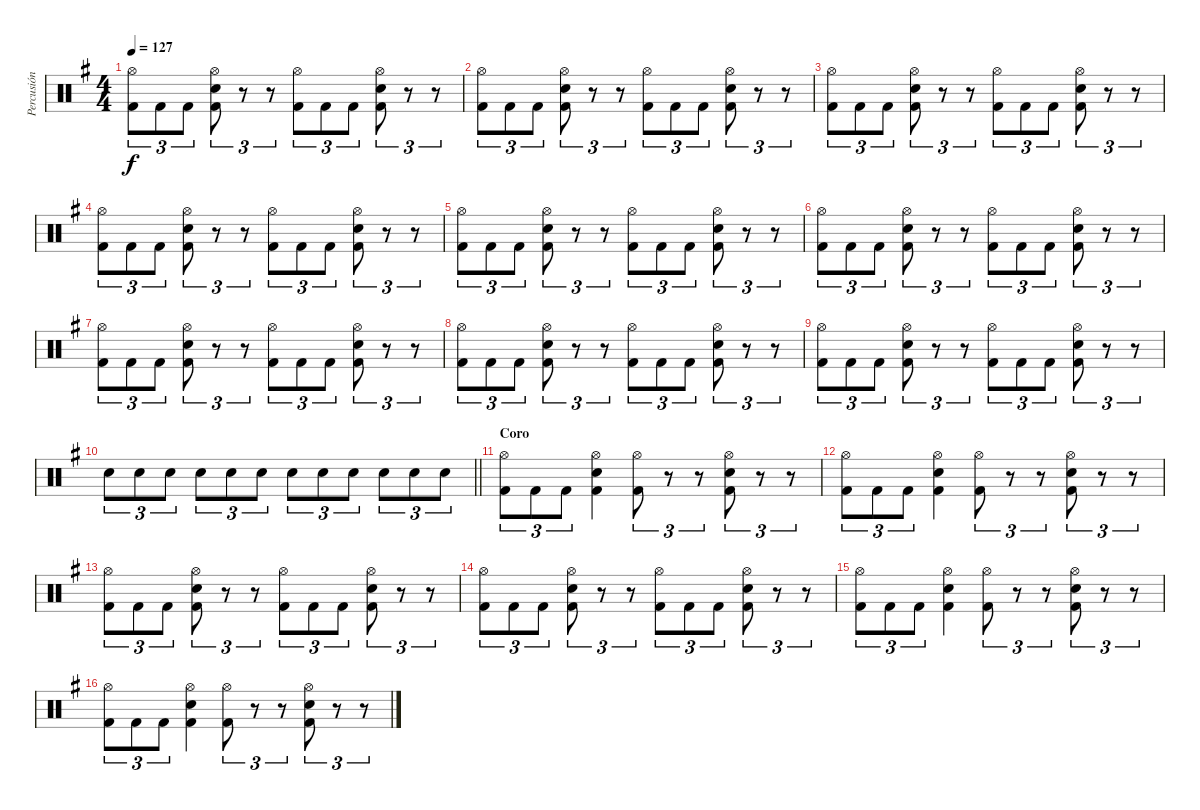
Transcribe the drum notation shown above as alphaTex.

\track ("Percusión" "Percusión") {instrument percussion}
\staff {score}
\articulation defaults
\ts (4 4)
\tempo 127
\clef neutral
\ks eminor
("Hi-Hat (open)" "Kick (hit) 2").8{tu (3 2) dy f} "Kick (hit) 2".8{tu (3 2)} "Kick (hit) 2".8{tu (3 2)} ("Hi-Hat (open)" "Kick (hit) 2" "Electric Snare (hit)").8{tu (3 2)} r.8{tu (3 2)} r.8{tu (3 2)} ("Hi-Hat (open)" "Kick (hit) 2").8{tu (3 2)} "Kick (hit) 2".8{tu (3 2)} "Kick (hit) 2".8{tu (3 2)} ("Hi-Hat (open)" "Kick (hit) 2" "Electric Snare (hit)").8{tu (3 2)} r.8{tu (3 2)} r.8{tu (3 2)} |
("Hi-Hat (open)" "Kick (hit) 2").8{tu (3 2)} "Kick (hit) 2".8{tu (3 2)} "Kick (hit) 2".8{tu (3 2)} ("Hi-Hat (open)" "Kick (hit) 2" "Electric Snare (hit)").8{tu (3 2)} r.8{tu (3 2)} r.8{tu (3 2)} ("Hi-Hat (open)" "Kick (hit) 2").8{tu (3 2)} "Kick (hit) 2".8{tu (3 2)} "Kick (hit) 2".8{tu (3 2)} ("Hi-Hat (open)" "Kick (hit) 2" "Electric Snare (hit)").8{tu (3 2)} r.8{tu (3 2)} r.8{tu (3 2)} |
("Hi-Hat (open)" "Kick (hit) 2").8{tu (3 2)} "Kick (hit) 2".8{tu (3 2)} "Kick (hit) 2".8{tu (3 2)} ("Hi-Hat (open)" "Kick (hit) 2" "Electric Snare (hit)").8{tu (3 2)} r.8{tu (3 2)} r.8{tu (3 2)} ("Hi-Hat (open)" "Kick (hit) 2").8{tu (3 2)} "Kick (hit) 2".8{tu (3 2)} "Kick (hit) 2".8{tu (3 2)} ("Hi-Hat (open)" "Kick (hit) 2" "Electric Snare (hit)").8{tu (3 2)} r.8{tu (3 2)} r.8{tu (3 2)} |
("Hi-Hat (open)" "Kick (hit) 2").8{tu (3 2)} "Kick (hit) 2".8{tu (3 2)} "Kick (hit) 2".8{tu (3 2)} ("Hi-Hat (open)" "Kick (hit) 2" "Electric Snare (hit)").8{tu (3 2)} r.8{tu (3 2)} r.8{tu (3 2)} ("Hi-Hat (open)" "Kick (hit) 2").8{tu (3 2)} "Kick (hit) 2".8{tu (3 2)} "Kick (hit) 2".8{tu (3 2)} ("Hi-Hat (open)" "Kick (hit) 2" "Electric Snare (hit)").8{tu (3 2)} r.8{tu (3 2)} r.8{tu (3 2)} |
("Hi-Hat (open)" "Kick (hit) 2").8{tu (3 2)} "Kick (hit) 2".8{tu (3 2)} "Kick (hit) 2".8{tu (3 2)} ("Hi-Hat (open)" "Kick (hit) 2" "Electric Snare (hit)").8{tu (3 2)} r.8{tu (3 2)} r.8{tu (3 2)} ("Hi-Hat (open)" "Kick (hit) 2").8{tu (3 2)} "Kick (hit) 2".8{tu (3 2)} "Kick (hit) 2".8{tu (3 2)} ("Hi-Hat (open)" "Kick (hit) 2" "Electric Snare (hit)").8{tu (3 2)} r.8{tu (3 2)} r.8{tu (3 2)} |
("Hi-Hat (open)" "Kick (hit) 2").8{tu (3 2)} "Kick (hit) 2".8{tu (3 2)} "Kick (hit) 2".8{tu (3 2)} ("Hi-Hat (open)" "Kick (hit) 2" "Electric Snare (hit)").8{tu (3 2)} r.8{tu (3 2)} r.8{tu (3 2)} ("Hi-Hat (open)" "Kick (hit) 2").8{tu (3 2)} "Kick (hit) 2".8{tu (3 2)} "Kick (hit) 2".8{tu (3 2)} ("Hi-Hat (open)" "Kick (hit) 2" "Electric Snare (hit)").8{tu (3 2)} r.8{tu (3 2)} r.8{tu (3 2)} |
("Hi-Hat (open)" "Kick (hit) 2").8{tu (3 2)} "Kick (hit) 2".8{tu (3 2)} "Kick (hit) 2".8{tu (3 2)} ("Hi-Hat (open)" "Kick (hit) 2" "Electric Snare (hit)").8{tu (3 2)} r.8{tu (3 2)} r.8{tu (3 2)} ("Hi-Hat (open)" "Kick (hit) 2").8{tu (3 2)} "Kick (hit) 2".8{tu (3 2)} "Kick (hit) 2".8{tu (3 2)} ("Hi-Hat (open)" "Kick (hit) 2" "Electric Snare (hit)").8{tu (3 2)} r.8{tu (3 2)} r.8{tu (3 2)} |
("Hi-Hat (open)" "Kick (hit) 2").8{tu (3 2)} "Kick (hit) 2".8{tu (3 2)} "Kick (hit) 2".8{tu (3 2)} ("Hi-Hat (open)" "Kick (hit) 2" "Electric Snare (hit)").8{tu (3 2)} r.8{tu (3 2)} r.8{tu (3 2)} ("Hi-Hat (open)" "Kick (hit) 2").8{tu (3 2)} "Kick (hit) 2".8{tu (3 2)} "Kick (hit) 2".8{tu (3 2)} ("Hi-Hat (open)" "Kick (hit) 2" "Electric Snare (hit)").8{tu (3 2)} r.8{tu (3 2)} r.8{tu (3 2)} |
("Hi-Hat (open)" "Kick (hit) 2").8{tu (3 2)} "Kick (hit) 2".8{tu (3 2)} "Kick (hit) 2".8{tu (3 2)} ("Hi-Hat (open)" "Kick (hit) 2" "Electric Snare (hit)").8{tu (3 2)} r.8{tu (3 2)} r.8{tu (3 2)} ("Hi-Hat (open)" "Kick (hit) 2").8{tu (3 2)} "Kick (hit) 2".8{tu (3 2)} "Kick (hit) 2".8{tu (3 2)} ("Hi-Hat (open)" "Kick (hit) 2" "Electric Snare (hit)").8{tu (3 2)} r.8{tu (3 2)} r.8{tu (3 2)} |
\barLineRight lightlight "Electric Snare (hit)".8{tu (3 2)} "Electric Snare (hit)".8{tu (3 2)} "Electric Snare (hit)".8{tu (3 2)} "Electric Snare (hit)".8{tu (3 2)} "Electric Snare (hit)".8{tu (3 2)} "Electric Snare (hit)".8{tu (3 2)} "Electric Snare (hit)".8{tu (3 2)} "Electric Snare (hit)".8{tu (3 2)} "Electric Snare (hit)".8{tu (3 2)} "Electric Snare (hit)".8{tu (3 2)} "Electric Snare (hit)".8{tu (3 2)} "Electric Snare (hit)".8{tu (3 2)}
|
\section ("" "Coro")
("Kick (hit) 2" "Hi-Hat (open)").8{tu (3 2)} "Kick (hit) 2".8{tu (3 2)} "Kick (hit) 2".8{tu (3 2)} ("Kick (hit) 2" "Hi-Hat (open)" "Electric Snare (hit)").4 ("Hi-Hat (open)" "Kick (hit) 2").8{tu (3 2)} r.8{tu (3 2)} r.8{tu (3 2)} ("Hi-Hat (open)" "Kick (hit) 2" "Electric Snare (hit)").8{tu (3 2)} r.8{tu (3 2)} r.8{tu (3 2)} |
("Kick (hit) 2" "Hi-Hat (open)").8{tu (3 2)} "Kick (hit) 2".8{tu (3 2)} "Kick (hit) 2".8{tu (3 2)} ("Kick (hit) 2" "Hi-Hat (open)" "Electric Snare (hit)").4 ("Hi-Hat (open)" "Kick (hit) 2").8{tu (3 2)} r.8{tu (3 2)} r.8{tu (3 2)} ("Hi-Hat (open)" "Kick (hit) 2" "Electric Snare (hit)").8{tu (3 2)} r.8{tu (3 2)} r.8{tu (3 2)} |
("Hi-Hat (open)" "Kick (hit) 2").8{tu (3 2)} "Kick (hit) 2".8{tu (3 2)} "Kick (hit) 2".8{tu (3 2)} ("Hi-Hat (open)" "Kick (hit) 2" "Electric Snare (hit)").8{tu (3 2)} r.8{tu (3 2)} r.8{tu (3 2)} ("Hi-Hat (open)" "Kick (hit) 2").8{tu (3 2)} "Kick (hit) 2".8{tu (3 2)} "Kick (hit) 2".8{tu (3 2)} ("Hi-Hat (open)" "Kick (hit) 2" "Electric Snare (hit)").8{tu (3 2)} r.8{tu (3 2)} r.8{tu (3 2)} |
("Hi-Hat (open)" "Kick (hit) 2").8{tu (3 2)} "Kick (hit) 2".8{tu (3 2)} "Kick (hit) 2".8{tu (3 2)} ("Hi-Hat (open)" "Kick (hit) 2" "Electric Snare (hit)").8{tu (3 2)} r.8{tu (3 2)} r.8{tu (3 2)} ("Hi-Hat (open)" "Kick (hit) 2").8{tu (3 2)} "Kick (hit) 2".8{tu (3 2)} "Kick (hit) 2".8{tu (3 2)} ("Hi-Hat (open)" "Kick (hit) 2" "Electric Snare (hit)").8{tu (3 2)} r.8{tu (3 2)} r.8{tu (3 2)} |
("Kick (hit) 2" "Hi-Hat (open)").8{tu (3 2)} "Kick (hit) 2".8{tu (3 2)} "Kick (hit) 2".8{tu (3 2)} ("Kick (hit) 2" "Hi-Hat (open)" "Electric Snare (hit)").4 ("Hi-Hat (open)" "Kick (hit) 2").8{tu (3 2)} r.8{tu (3 2)} r.8{tu (3 2)} ("Hi-Hat (open)" "Kick (hit) 2" "Electric Snare (hit)").8{tu (3 2)} r.8{tu (3 2)} r.8{tu (3 2)} |
("Kick (hit) 2" "Hi-Hat (open)").8{tu (3 2)} "Kick (hit) 2".8{tu (3 2)} "Kick (hit) 2".8{tu (3 2)} ("Kick (hit) 2" "Hi-Hat (open)" "Electric Snare (hit)").4 ("Hi-Hat (open)" "Kick (hit) 2").8{tu (3 2)} r.8{tu (3 2)} r.8{tu (3 2)} ("Hi-Hat (open)" "Kick (hit) 2" "Electric Snare (hit)").8{tu (3 2)} r.8{tu (3 2)} r.8{tu (3 2)}
